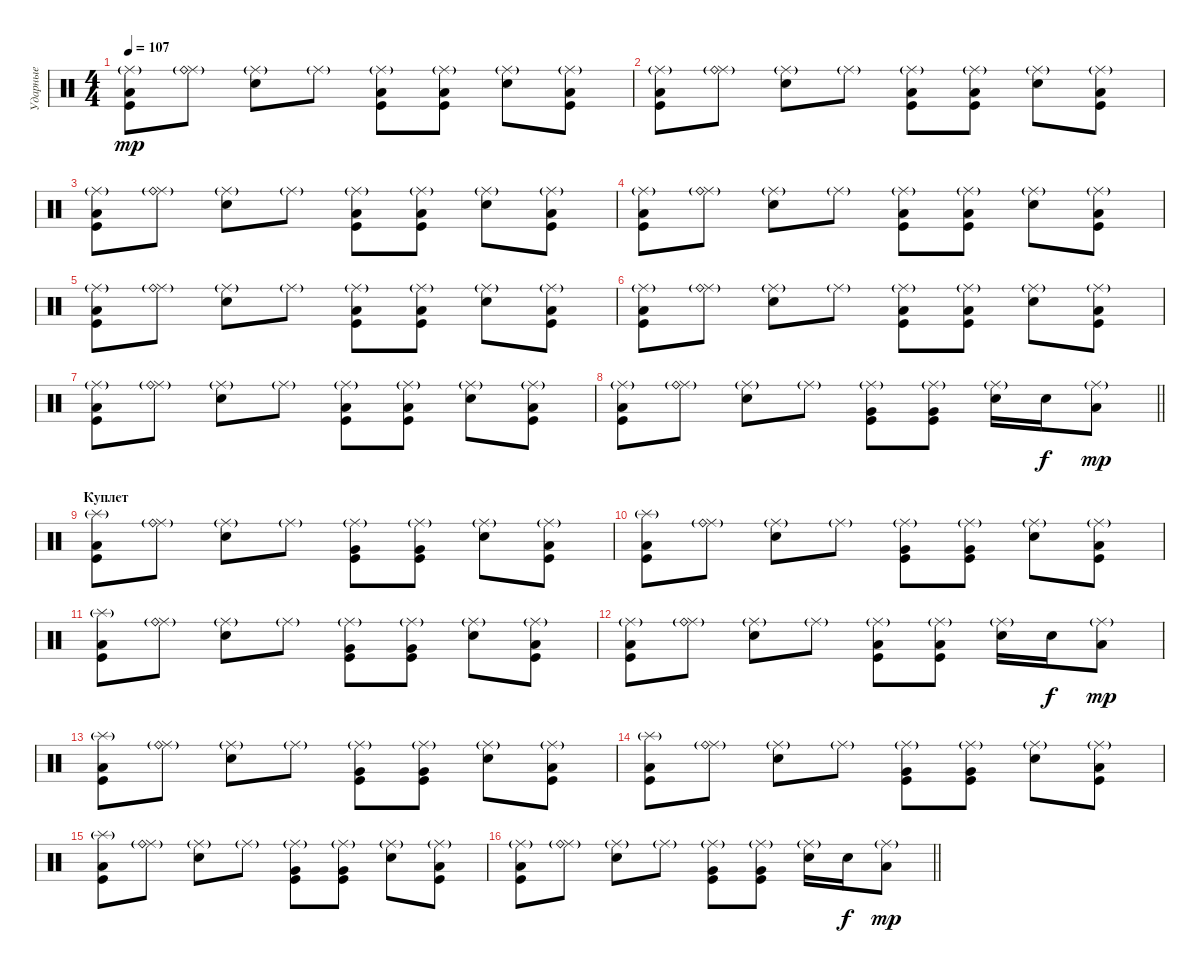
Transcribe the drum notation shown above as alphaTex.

\track ("Ударные" "Ударные") {instrument percussion}
\staff {score}
\articulation defaults
\ts (4 4)
\tempo 107
\clef neutral
\ks c
("Ride (middle)"{g} "Kick (hit)" "Low Tom (hit)").8{dy mp} ("Ride (middle)"{g} "Ride (bell)").8 ("Ride (middle)"{g} "Snare (hit) 2").8 "Ride (middle)"{g}.8 ("Ride (middle)"{g} "Kick (hit)" "Low Tom (hit)").8 ("Ride (middle)"{g} "Kick (hit)" "Low Tom (hit)").8 ("Ride (middle)"{g} "Snare (hit) 2").8 ("Ride (middle)"{g} "Kick (hit)" "Low Tom (hit)").8 |
("Ride (middle)"{g} "Kick (hit)" "Low Tom (hit)").8 ("Ride (middle)"{g} "Ride (bell)").8 ("Ride (middle)"{g} "Snare (hit) 2").8 "Ride (middle)"{g}.8 ("Ride (middle)"{g} "Kick (hit)" "Low Tom (hit)").8 ("Ride (middle)"{g} "Kick (hit)" "Low Tom (hit)").8 ("Ride (middle)"{g} "Snare (hit) 2").8 ("Ride (middle)"{g} "Kick (hit)" "Low Tom (hit)").8 |
("Ride (middle)"{g} "Kick (hit)" "Low Tom (hit)").8 ("Ride (middle)"{g} "Ride (bell)").8 ("Ride (middle)"{g} "Snare (hit) 2").8 "Ride (middle)"{g}.8 ("Ride (middle)"{g} "Kick (hit)" "Low Tom (hit)").8 ("Ride (middle)"{g} "Kick (hit)" "Low Tom (hit)").8 ("Ride (middle)"{g} "Snare (hit) 2").8 ("Ride (middle)"{g} "Kick (hit)" "Low Tom (hit)").8 |
("Ride (middle)"{g} "Kick (hit)" "Low Tom (hit)").8 ("Ride (middle)"{g} "Ride (bell)").8 ("Ride (middle)"{g} "Snare (hit) 2").8 "Ride (middle)"{g}.8 ("Ride (middle)"{g} "Kick (hit)" "Low Tom (hit)").8 ("Ride (middle)"{g} "Kick (hit)" "Low Tom (hit)").8 ("Ride (middle)"{g} "Snare (hit) 2").8 ("Ride (middle)"{g} "Kick (hit)" "Low Tom (hit)").8 |
("Ride (middle)"{g} "Kick (hit)" "Low Tom (hit)").8 ("Ride (middle)"{g} "Ride (bell)").8 ("Ride (middle)"{g} "Snare (hit) 2").8 "Ride (middle)"{g}.8 ("Ride (middle)"{g} "Kick (hit)" "Low Tom (hit)").8 ("Ride (middle)"{g} "Kick (hit)" "Low Tom (hit)").8 ("Ride (middle)"{g} "Snare (hit) 2").8 ("Ride (middle)"{g} "Kick (hit)" "Low Tom (hit)").8 |
("Ride (middle)"{g} "Kick (hit)" "Low Tom (hit)").8 ("Ride (middle)"{g} "Ride (bell)").8 ("Ride (middle)"{g} "Snare (hit) 2").8 "Ride (middle)"{g}.8 ("Ride (middle)"{g} "Kick (hit)" "Low Tom (hit)").8 ("Ride (middle)"{g} "Kick (hit)" "Low Tom (hit)").8 ("Ride (middle)"{g} "Snare (hit) 2").8 ("Ride (middle)"{g} "Kick (hit)" "Low Tom (hit)").8 |
("Ride (middle)"{g} "Kick (hit)" "Low Tom (hit)").8 ("Ride (middle)"{g} "Ride (bell)").8 ("Ride (middle)"{g} "Snare (hit) 2").8 "Ride (middle)"{g}.8 ("Ride (middle)"{g} "Kick (hit)" "Low Tom (hit)").8 ("Ride (middle)"{g} "Kick (hit)" "Low Tom (hit)").8 ("Ride (middle)"{g} "Snare (hit) 2").8 ("Ride (middle)"{g} "Kick (hit)" "Low Tom (hit)").8 |
\barLineRight lightlight
("Ride (middle)"{g} "Kick (hit)" "Low Tom (hit)").8 ("Ride (middle)"{g} "Ride (bell)").8 ("Ride (middle)"{g} "Snare (hit) 2").8 "Ride (middle)"{g}.8 ("Ride (middle)"{g} "Kick (hit)" "Very Low Tom (hit)").8 ("Ride (middle)"{g} "Kick (hit)" "Very Low Tom (hit)").8 ("Ride (middle)"{g} "Snare (hit) 2").16 "Snare (hit) 2".16{dy f} ("Ride (middle)"{g} "Low Tom (hit)").8{dy mp} |
\section ("" "Куплет")
("Splash (hit)"{g} "Kick (hit)" "Low Tom (hit)").8 ("Ride (middle)"{g} "Ride (bell)").8 ("Ride (middle)"{g} "Snare (hit) 2").8 "Ride (middle)"{g}.8 ("Ride (middle)"{g} "Kick (hit)" "Very Low Tom (hit)").8 ("Ride (middle)"{g} "Kick (hit)" "Very Low Tom (hit)").8 ("Ride (middle)"{g} "Snare (hit) 2").8 ("Ride (middle)"{g} "Kick (hit)" "Low Tom (hit)").8 |
("Splash (hit)"{g} "Kick (hit)" "Low Tom (hit)").8 ("Ride (middle)"{g} "Ride (bell)").8 ("Ride (middle)"{g} "Snare (hit) 2").8 "Ride (middle)"{g}.8 ("Ride (middle)"{g} "Kick (hit)" "Very Low Tom (hit)").8 ("Ride (middle)"{g} "Kick (hit)" "Very Low Tom (hit)").8 ("Ride (middle)"{g} "Snare (hit) 2").8 ("Ride (middle)"{g} "Kick (hit)" "Low Tom (hit)").8 |
("Splash (hit)"{g} "Kick (hit)" "Low Tom (hit)").8 ("Ride (middle)"{g} "Ride (bell)").8 ("Ride (middle)"{g} "Snare (hit) 2").8 "Ride (middle)"{g}.8 ("Ride (middle)"{g} "Kick (hit)" "Very Low Tom (hit)").8 ("Ride (middle)"{g} "Kick (hit)" "Very Low Tom (hit)").8 ("Ride (middle)"{g} "Snare (hit) 2").8 ("Ride (middle)"{g} "Kick (hit)" "Low Tom (hit)").8 |
("Ride (middle)"{g} "Kick (hit)" "Low Tom (hit)").8 ("Ride (middle)"{g} "Ride (bell)").8 ("Ride (middle)"{g} "Snare (hit) 2").8 "Ride (middle)"{g}.8 ("Ride (middle)"{g} "Kick (hit)" "Low Tom (hit)").8 ("Ride (middle)"{g} "Kick (hit)" "Low Tom (hit)").8 ("Ride (middle)"{g} "Snare (hit) 2").16 "Snare (hit) 2".16{dy f} ("Ride (middle)"{g} "Low Tom (hit)").8{dy mp} |
("Splash (hit)"{g} "Kick (hit)" "Low Tom (hit)").8 ("Ride (middle)"{g} "Ride (bell)").8 ("Ride (middle)"{g} "Snare (hit) 2").8 "Ride (middle)"{g}.8 ("Ride (middle)"{g} "Kick (hit)" "Very Low Tom (hit)").8 ("Ride (middle)"{g} "Kick (hit)" "Very Low Tom (hit)").8 ("Ride (middle)"{g} "Snare (hit) 2").8 ("Ride (middle)"{g} "Kick (hit)" "Low Tom (hit)").8 |
("Splash (hit)"{g} "Kick (hit)" "Low Tom (hit)").8 ("Ride (middle)"{g} "Ride (bell)").8 ("Ride (middle)"{g} "Snare (hit) 2").8 "Ride (middle)"{g}.8 ("Ride (middle)"{g} "Kick (hit)" "Very Low Tom (hit)").8 ("Ride (middle)"{g} "Kick (hit)" "Very Low Tom (hit)").8 ("Ride (middle)"{g} "Snare (hit) 2").8 ("Ride (middle)"{g} "Kick (hit)" "Low Tom (hit)").8 |
("Splash (hit)"{g} "Kick (hit)" "Low Tom (hit)").8 ("Ride (middle)"{g} "Ride (bell)").8 ("Ride (middle)"{g} "Snare (hit) 2").8 "Ride (middle)"{g}.8 ("Ride (middle)"{g} "Kick (hit)" "Very Low Tom (hit)").8 ("Ride (middle)"{g} "Kick (hit)" "Very Low Tom (hit)").8 ("Ride (middle)"{g} "Snare (hit) 2").8 ("Ride (middle)"{g} "Kick (hit)" "Low Tom (hit)").8 |
\barLineRight lightlight
("Ride (middle)"{g} "Kick (hit)" "Low Tom (hit)").8 ("Ride (middle)"{g} "Ride (bell)").8 ("Ride (middle)"{g} "Snare (hit) 2").8 "Ride (middle)"{g}.8 ("Ride (middle)"{g} "Kick (hit)" "Very Low Tom (hit)").8 ("Ride (middle)"{g} "Kick (hit)" "Very Low Tom (hit)").8 ("Ride (middle)"{g} "Snare (hit) 2").16 "Snare (hit) 2".16{dy f} ("Ride (middle)"{g} "Low Tom (hit)").8{dy mp}
